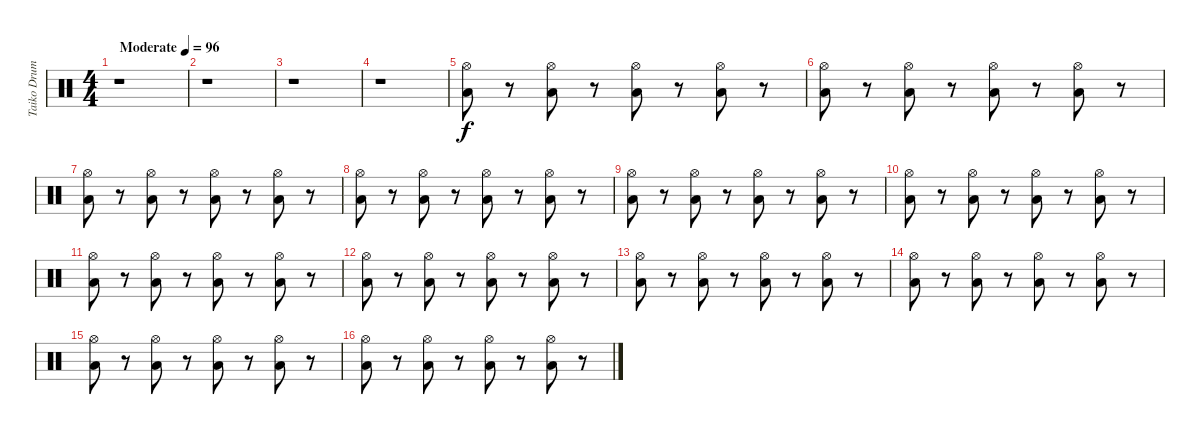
\track ("Taiko Drum" "Taiko Drum") {instrument percussion}
\staff {score}
\articulation defaults
\ts (4 4)
\tempo (96 "Moderate")
\tempo 101
\tempo (96 "Moderate")
\clef neutral
\ks c
r.1{dy f} |
r.1 |
r.1 |
r.1 |
("Hi-Hat (open)" "Low Floor Tom (hit)").8 r.8 ("Low Floor Tom (hit)" "Hi-Hat (open)").8 r.8 ("Low Floor Tom (hit)" "Hi-Hat (open)").8 r.8 ("Low Floor Tom (hit)" "Hi-Hat (open)").8 r.8 |
("Hi-Hat (open)" "Low Floor Tom (hit)").8 r.8 ("Hi-Hat (open)" "Low Floor Tom (hit)").8 r.8 ("Hi-Hat (open)" "Low Floor Tom (hit)").8 r.8 ("Hi-Hat (open)" "Low Floor Tom (hit)").8 r.8 |
("Hi-Hat (open)" "Low Floor Tom (hit)").8 r.8 ("Low Floor Tom (hit)" "Hi-Hat (open)").8 r.8 ("Low Floor Tom (hit)" "Hi-Hat (open)").8 r.8 ("Low Floor Tom (hit)" "Hi-Hat (open)").8 r.8 |
("Hi-Hat (open)" "Low Floor Tom (hit)").8 r.8 ("Hi-Hat (open)" "Low Floor Tom (hit)").8 r.8 ("Hi-Hat (open)" "Low Floor Tom (hit)").8 r.8 ("Hi-Hat (open)" "Low Floor Tom (hit)").8 r.8 |
("Hi-Hat (open)" "Low Floor Tom (hit)").8 r.8 ("Low Floor Tom (hit)" "Hi-Hat (open)").8 r.8 ("Low Floor Tom (hit)" "Hi-Hat (open)").8 r.8 ("Low Floor Tom (hit)" "Hi-Hat (open)").8 r.8 |
("Hi-Hat (open)" "Low Floor Tom (hit)").8 r.8 ("Hi-Hat (open)" "Low Floor Tom (hit)").8 r.8 ("Hi-Hat (open)" "Low Floor Tom (hit)").8 r.8 ("Hi-Hat (open)" "Low Floor Tom (hit)").8 r.8 |
("Hi-Hat (open)" "Low Floor Tom (hit)").8 r.8 ("Low Floor Tom (hit)" "Hi-Hat (open)").8 r.8 ("Low Floor Tom (hit)" "Hi-Hat (open)").8 r.8 ("Low Floor Tom (hit)" "Hi-Hat (open)").8 r.8 |
("Hi-Hat (open)" "Low Floor Tom (hit)").8 r.8 ("Hi-Hat (open)" "Low Floor Tom (hit)").8 r.8 ("Hi-Hat (open)" "Low Floor Tom (hit)").8 r.8 ("Hi-Hat (open)" "Low Floor Tom (hit)").8 r.8 |
("Hi-Hat (open)" "Low Floor Tom (hit)").8 r.8 ("Low Floor Tom (hit)" "Hi-Hat (open)").8 r.8 ("Low Floor Tom (hit)" "Hi-Hat (open)").8 r.8 ("Low Floor Tom (hit)" "Hi-Hat (open)").8 r.8 |
("Hi-Hat (open)" "Low Floor Tom (hit)").8 r.8 ("Hi-Hat (open)" "Low Floor Tom (hit)").8 r.8 ("Hi-Hat (open)" "Low Floor Tom (hit)").8 r.8 ("Hi-Hat (open)" "Low Floor Tom (hit)").8 r.8 |
("Hi-Hat (open)" "Low Floor Tom (hit)").8 r.8 ("Low Floor Tom (hit)" "Hi-Hat (open)").8 r.8 ("Low Floor Tom (hit)" "Hi-Hat (open)").8 r.8 ("Low Floor Tom (hit)" "Hi-Hat (open)").8 r.8 |
("Hi-Hat (open)" "Low Floor Tom (hit)").8 r.8 ("Hi-Hat (open)" "Low Floor Tom (hit)").8 r.8 ("Hi-Hat (open)" "Low Floor Tom (hit)").8 r.8 ("Hi-Hat (open)" "Low Floor Tom (hit)").8 r.8
